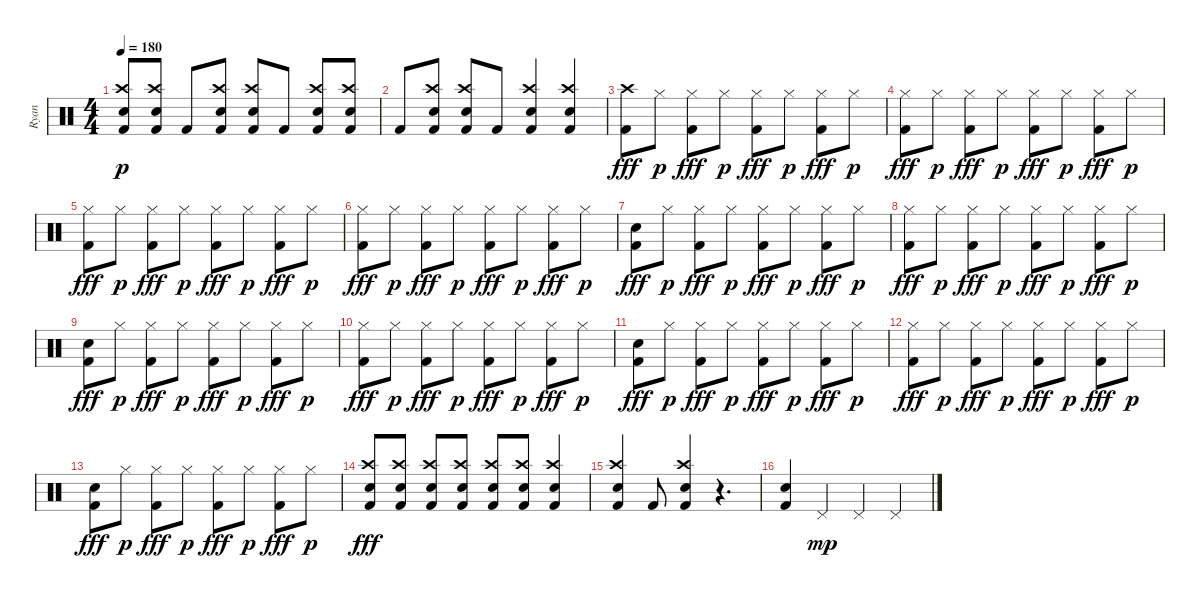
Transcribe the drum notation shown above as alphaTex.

\track ("Ryan" "Ryan") {instrument percussion}
\staff {score}
\articulation defaults
\ts (4 4)
\tempo 180
\clef neutral
\ks c
("Snare (hit) 2" "Crash high (hit)" "Kick (hit) 2").8{dy p} ("Snare (hit) 2" "Crash high (hit)" "Kick (hit) 2").8 "Kick (hit) 2".8 ("Snare (hit) 2" "Crash high (hit)" "Kick (hit) 2").8 ("Snare (hit) 2" "Crash high (hit)" "Kick (hit) 2").8 "Kick (hit) 2".8 ("Snare (hit) 2" "Crash high (hit)" "Kick (hit) 2").8 ("Snare (hit) 2" "Crash high (hit)" "Kick (hit) 2").8 |
"Kick (hit) 2".8 ("Snare (hit) 2" "Crash high (hit)" "Kick (hit) 2").8 ("Snare (hit) 2" "Crash high (hit)" "Kick (hit) 2").8 "Kick (hit) 2".8 ("Snare (hit) 2" "Crash high (hit)" "Kick (hit) 2").4 ("Snare (hit) 2" "Crash high (hit)" "Kick (hit) 2").4 |
("Crash high (hit)" "Kick (hit) 2").8{dy fff} "Hi-Hat (closed)".8{dy p} ("Hi-Hat (closed)" "Kick (hit) 2").8{dy fff} "Hi-Hat (closed)".8{dy p} ("Hi-Hat (closed)" "Kick (hit) 2").8{dy fff} "Hi-Hat (closed)".8{dy p} ("Hi-Hat (closed)" "Kick (hit) 2").8{dy fff} "Hi-Hat (closed)".8{dy p} |
("Hi-Hat (closed)" "Kick (hit) 2").8{dy fff} "Hi-Hat (closed)".8{dy p} ("Hi-Hat (closed)" "Kick (hit) 2").8{dy fff} "Hi-Hat (closed)".8{dy p} ("Hi-Hat (closed)" "Kick (hit) 2").8{dy fff} "Hi-Hat (closed)".8{dy p} ("Hi-Hat (closed)" "Kick (hit) 2").8{dy fff} "Hi-Hat (closed)".8{dy p} |
("Hi-Hat (closed)" "Kick (hit) 2").8{dy fff} "Hi-Hat (closed)".8{dy p} ("Hi-Hat (closed)" "Kick (hit) 2").8{dy fff} "Hi-Hat (closed)".8{dy p} ("Hi-Hat (closed)" "Kick (hit) 2").8{dy fff} "Hi-Hat (closed)".8{dy p} ("Hi-Hat (closed)" "Kick (hit) 2").8{dy fff} "Hi-Hat (closed)".8{dy p} |
("Hi-Hat (closed)" "Kick (hit) 2").8{dy fff} "Hi-Hat (closed)".8{dy p} ("Hi-Hat (closed)" "Kick (hit) 2").8{dy fff} "Hi-Hat (closed)".8{dy p} ("Hi-Hat (closed)" "Kick (hit) 2").8{dy fff} "Hi-Hat (closed)".8{dy p} ("Hi-Hat (closed)" "Kick (hit) 2").8{dy fff} "Hi-Hat (closed)".8{dy p} |
("Kick (hit) 2" "Snare (hit) 2").8{dy fff} "Hi-Hat (closed)".8{dy p} ("Hi-Hat (closed)" "Kick (hit) 2").8{dy fff} "Hi-Hat (closed)".8{dy p} ("Hi-Hat (closed)" "Kick (hit) 2").8{dy fff} "Hi-Hat (closed)".8{dy p} ("Hi-Hat (closed)" "Kick (hit) 2").8{dy fff} "Hi-Hat (closed)".8{dy p} |
("Hi-Hat (closed)" "Kick (hit) 2").8{dy fff} "Hi-Hat (closed)".8{dy p} ("Hi-Hat (closed)" "Kick (hit) 2").8{dy fff} "Hi-Hat (closed)".8{dy p} ("Hi-Hat (closed)" "Kick (hit) 2").8{dy fff} "Hi-Hat (closed)".8{dy p} ("Hi-Hat (closed)" "Kick (hit) 2").8{dy fff} "Hi-Hat (closed)".8{dy p} |
("Kick (hit) 2" "Snare (hit) 2").8{dy fff} "Hi-Hat (closed)".8{dy p} ("Hi-Hat (closed)" "Kick (hit) 2").8{dy fff} "Hi-Hat (closed)".8{dy p} ("Hi-Hat (closed)" "Kick (hit) 2").8{dy fff} "Hi-Hat (closed)".8{dy p} ("Hi-Hat (closed)" "Kick (hit) 2").8{dy fff} "Hi-Hat (closed)".8{dy p} |
("Hi-Hat (closed)" "Kick (hit) 2").8{dy fff} "Hi-Hat (closed)".8{dy p} ("Hi-Hat (closed)" "Kick (hit) 2").8{dy fff} "Hi-Hat (closed)".8{dy p} ("Hi-Hat (closed)" "Kick (hit) 2").8{dy fff} "Hi-Hat (closed)".8{dy p} ("Hi-Hat (closed)" "Kick (hit) 2").8{dy fff} "Hi-Hat (closed)".8{dy p} |
("Kick (hit) 2" "Snare (hit) 2").8{dy fff} "Hi-Hat (closed)".8{dy p} ("Hi-Hat (closed)" "Kick (hit) 2").8{dy fff} "Hi-Hat (closed)".8{dy p} ("Hi-Hat (closed)" "Kick (hit) 2").8{dy fff} "Hi-Hat (closed)".8{dy p} ("Hi-Hat (closed)" "Kick (hit) 2").8{dy fff} "Hi-Hat (closed)".8{dy p} |
("Hi-Hat (closed)" "Kick (hit) 2").8{dy fff} "Hi-Hat (closed)".8{dy p} ("Hi-Hat (closed)" "Kick (hit) 2").8{dy fff} "Hi-Hat (closed)".8{dy p} ("Hi-Hat (closed)" "Kick (hit) 2").8{dy fff} "Hi-Hat (closed)".8{dy p} ("Hi-Hat (closed)" "Kick (hit) 2").8{dy fff} "Hi-Hat (closed)".8{dy p} |
("Kick (hit) 2" "Snare (hit) 2").8{dy fff} "Hi-Hat (closed)".8{dy p} ("Hi-Hat (closed)" "Kick (hit) 2").8{dy fff} "Hi-Hat (closed)".8{dy p} ("Hi-Hat (closed)" "Kick (hit) 2").8{dy fff} "Hi-Hat (closed)".8{dy p} ("Hi-Hat (closed)" "Kick (hit) 2").8{dy fff} "Hi-Hat (closed)".8{dy p} |
("Crash high (hit)" "Snare (hit) 2" "Kick (hit) 2").8{dy fff} ("Crash high (hit)" "Snare (hit) 2" "Kick (hit) 2").8 ("Crash high (hit)" "Snare (hit) 2" "Kick (hit) 2").8 ("Crash high (hit)" "Snare (hit) 2" "Kick (hit) 2").8 ("Crash high (hit)" "Snare (hit) 2" "Kick (hit) 2").8 ("Crash high (hit)" "Snare (hit) 2" "Kick (hit) 2").8 ("Crash high (hit)" "Snare (hit) 2" "Kick (hit) 2").4 |
("Kick (hit) 2" "Snare (hit) 2" "Crash high (hit)").4 "Kick (hit) 2".8 ("Kick (hit) 2" "Snare (hit) 2" "Crash high (hit)").4 r.4{d} |
("Kick (hit) 2" "Snare (hit) 2").4 "Pedal Hi-Hat (hit)".4{dy mp} "Pedal Hi-Hat (hit)".4 "Pedal Hi-Hat (hit)".4
